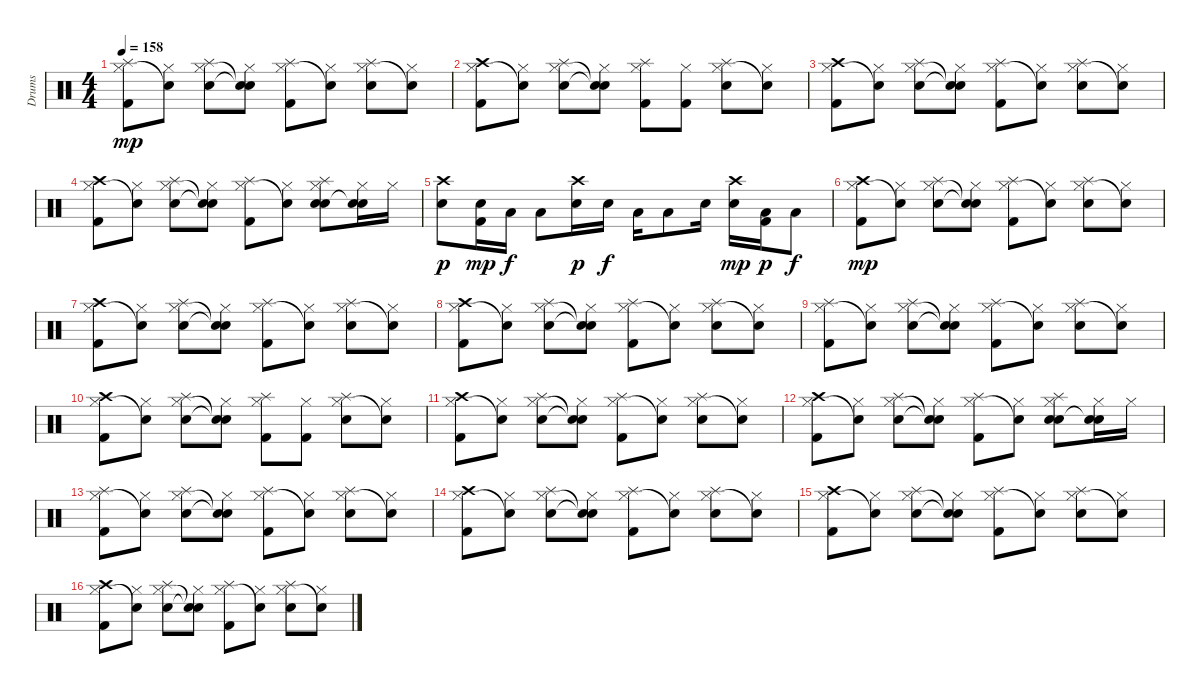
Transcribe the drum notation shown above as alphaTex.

\track ("Drums" "Drums") {instrument percussion}
\staff {score}
\articulation defaults
\ts (4 4)
\tempo 158
\clef neutral
\ks c
("Splash (hit)" "Hi-Hat (closed)" "Kick (hit) 2").8{dy mp} ("Hi-Hat (closed)" "Snare (hit)"{t}).8 ("Splash (hit)" "Hi-Hat (closed)" "Electric Snare (hit)").8 ("Hi-Hat (closed)" "Electric Snare (hit)"{t} "Snare (hit)"{t}).8 ("Splash (hit)" "Hi-Hat (closed)" "Kick (hit) 2").8 ("Hi-Hat (closed)" "Snare (hit)"{t}).8 ("Splash (hit)" "Hi-Hat (closed)" "Electric Snare (hit)").8 ("Hi-Hat (closed)" "Snare (hit)"{t}).8 |
("Crash high (hit)" "Hi-Hat (closed)" "Kick (hit) 2").8 ("Hi-Hat (closed)" "Snare (hit)"{t}).8 ("Splash (hit)" "Hi-Hat (closed)" "Electric Snare (hit)").8 ("Hi-Hat (closed)" "Electric Snare (hit)"{t} "Snare (hit)"{t}).8 ("Splash (hit)" "Hi-Hat (closed)" "Kick (hit) 2").8 ("Hi-Hat (closed)" "Kick (hit) 2").8 ("Splash (hit)" "Hi-Hat (closed)" "Electric Snare (hit)").8 ("Hi-Hat (closed)" "Snare (hit)"{t}).8 |
("Crash high (hit)" "Hi-Hat (closed)" "Kick (hit) 2").8 ("Hi-Hat (closed)" "Snare (hit)"{t}).8 ("Splash (hit)" "Hi-Hat (closed)" "Electric Snare (hit)").8 ("Hi-Hat (closed)" "Electric Snare (hit)"{t} "Snare (hit)"{t}).8 ("Splash (hit)" "Hi-Hat (closed)" "Kick (hit) 2").8 ("Hi-Hat (closed)" "Snare (hit)"{t}).8 ("Splash (hit)" "Hi-Hat (closed)" "Electric Snare (hit)").8 ("Hi-Hat (closed)" "Snare (hit)"{t}).8 |
("Crash high (hit)" "Hi-Hat (closed)" "Kick (hit) 2").8 ("Hi-Hat (closed)" "Snare (hit)"{t}).8 ("Splash (hit)" "Hi-Hat (closed)" "Electric Snare (hit)").8 ("Hi-Hat (closed)" "Electric Snare (hit)"{t} "Snare (hit)"{t}).8 ("Splash (hit)" "Hi-Hat (closed)" "Kick (hit) 2").8 ("Hi-Hat (closed)" "Snare (hit)"{t}).8 ("Splash (hit)" "Hi-Hat (closed)" "Electric Snare (hit)" "Electric Snare (hit)").8 ("Hi-Hat (closed)" "Electric Snare (hit)" "Snare (hit)"{t}).16 "Hi-Hat (closed)".16 |
("Crash high (hit)" "Electric Snare (hit)").8{dy p} ("Electric Snare (hit)" "Kick (hit) 2").16{dy mp} "Low Tom (hit)".16{dy f} "Low Tom (hit)".8 ("Crash high (hit)" "Electric Snare (hit)").16{dy p} "Electric Snare (hit)".16{dy f} "Low Tom (hit)".16 "Low Tom (hit)".8 "Electric Snare (hit)".16 ("Crash high (hit)" "Electric Snare (hit)").16{dy mp} ("Low Tom (hit)" "Kick (hit) 2").16{dy p} "Low Tom (hit)".8{dy f} |
("Crash high (hit)" "Hi-Hat (closed)" "Kick (hit) 2").8{dy mp} ("Hi-Hat (closed)" "Snare (hit)"{t}).8 ("Splash (hit)" "Hi-Hat (closed)" "Electric Snare (hit)").8 ("Hi-Hat (closed)" "Electric Snare (hit)"{t} "Snare (hit)"{t}).8 ("Splash (hit)" "Hi-Hat (closed)" "Kick (hit) 2").8 ("Hi-Hat (closed)" "Snare (hit)"{t}).8 ("Splash (hit)" "Hi-Hat (closed)" "Electric Snare (hit)").8 ("Hi-Hat (closed)" "Snare (hit)"{t}).8 |
("Crash high (hit)" "Hi-Hat (closed)" "Kick (hit) 2").8 ("Hi-Hat (closed)" "Snare (hit)"{t}).8 ("Splash (hit)" "Hi-Hat (closed)" "Electric Snare (hit)").8 ("Hi-Hat (closed)" "Electric Snare (hit)"{t} "Snare (hit)"{t}).8 ("Splash (hit)" "Hi-Hat (closed)" "Kick (hit) 2").8 ("Hi-Hat (closed)" "Snare (hit)"{t}).8 ("Splash (hit)" "Hi-Hat (closed)" "Electric Snare (hit)").8 ("Hi-Hat (closed)" "Snare (hit)"{t}).8 |
("Crash high (hit)" "Hi-Hat (closed)" "Kick (hit) 2").8 ("Hi-Hat (closed)" "Snare (hit)"{t}).8 ("Splash (hit)" "Hi-Hat (closed)" "Electric Snare (hit)").8 ("Hi-Hat (closed)" "Electric Snare (hit)"{t} "Snare (hit)"{t}).8 ("Splash (hit)" "Hi-Hat (closed)" "Kick (hit) 2").8 ("Hi-Hat (closed)" "Snare (hit)"{t}).8 ("Splash (hit)" "Hi-Hat (closed)" "Electric Snare (hit)").8 ("Hi-Hat (closed)" "Snare (hit)"{t}).8 |
("Splash (hit)" "Hi-Hat (closed)" "Kick (hit) 2").8 ("Hi-Hat (closed)" "Snare (hit)"{t}).8 ("Splash (hit)" "Hi-Hat (closed)" "Electric Snare (hit)").8 ("Hi-Hat (closed)" "Electric Snare (hit)"{t} "Snare (hit)"{t}).8 ("Splash (hit)" "Hi-Hat (closed)" "Kick (hit) 2").8 ("Hi-Hat (closed)" "Snare (hit)"{t}).8 ("Splash (hit)" "Hi-Hat (closed)" "Electric Snare (hit)").8 ("Hi-Hat (closed)" "Snare (hit)"{t}).8 |
("Crash high (hit)" "Hi-Hat (closed)" "Kick (hit) 2").8 ("Hi-Hat (closed)" "Snare (hit)"{t}).8 ("Splash (hit)" "Hi-Hat (closed)" "Electric Snare (hit)").8 ("Hi-Hat (closed)" "Electric Snare (hit)"{t} "Snare (hit)"{t}).8 ("Splash (hit)" "Hi-Hat (closed)" "Kick (hit) 2").8 ("Hi-Hat (closed)" "Kick (hit) 2").8 ("Splash (hit)" "Hi-Hat (closed)" "Electric Snare (hit)").8 ("Hi-Hat (closed)" "Snare (hit)"{t}).8 |
("Crash high (hit)" "Hi-Hat (closed)" "Kick (hit) 2").8 ("Hi-Hat (closed)" "Snare (hit)"{t}).8 ("Splash (hit)" "Hi-Hat (closed)" "Electric Snare (hit)").8 ("Hi-Hat (closed)" "Electric Snare (hit)"{t} "Snare (hit)"{t}).8 ("Splash (hit)" "Hi-Hat (closed)" "Kick (hit) 2").8 ("Hi-Hat (closed)" "Snare (hit)"{t}).8 ("Splash (hit)" "Hi-Hat (closed)" "Electric Snare (hit)").8 ("Hi-Hat (closed)" "Snare (hit)"{t}).8 |
("Crash high (hit)" "Hi-Hat (closed)" "Kick (hit) 2").8 ("Hi-Hat (closed)" "Snare (hit)"{t}).8 ("Splash (hit)" "Hi-Hat (closed)" "Electric Snare (hit)").8 ("Hi-Hat (closed)" "Electric Snare (hit)"{t} "Snare (hit)"{t}).8 ("Splash (hit)" "Hi-Hat (closed)" "Kick (hit) 2").8 ("Hi-Hat (closed)" "Snare (hit)"{t}).8 ("Splash (hit)" "Hi-Hat (closed)" "Electric Snare (hit)" "Electric Snare (hit)").8 ("Hi-Hat (closed)" "Electric Snare (hit)" "Snare (hit)"{t}).16 "Hi-Hat (closed)".16 |
("Splash (hit)" "Hi-Hat (closed)" "Kick (hit) 2").8 ("Hi-Hat (closed)" "Snare (hit)"{t}).8 ("Splash (hit)" "Hi-Hat (closed)" "Electric Snare (hit)").8 ("Hi-Hat (closed)" "Electric Snare (hit)"{t} "Snare (hit)"{t}).8 ("Splash (hit)" "Hi-Hat (closed)" "Kick (hit) 2").8 ("Hi-Hat (closed)" "Snare (hit)"{t}).8 ("Splash (hit)" "Hi-Hat (closed)" "Electric Snare (hit)").8 ("Hi-Hat (closed)" "Snare (hit)"{t}).8 |
("Crash high (hit)" "Hi-Hat (closed)" "Kick (hit) 2").8 ("Hi-Hat (closed)" "Snare (hit)"{t}).8 ("Splash (hit)" "Hi-Hat (closed)" "Electric Snare (hit)").8 ("Hi-Hat (closed)" "Electric Snare (hit)"{t} "Snare (hit)"{t}).8 ("Splash (hit)" "Hi-Hat (closed)" "Kick (hit) 2").8 ("Hi-Hat (closed)" "Snare (hit)"{t}).8 ("Splash (hit)" "Hi-Hat (closed)" "Electric Snare (hit)").8 ("Hi-Hat (closed)" "Snare (hit)"{t}).8 |
("Crash high (hit)" "Hi-Hat (closed)" "Kick (hit) 2").8 ("Hi-Hat (closed)" "Snare (hit)"{t}).8 ("Splash (hit)" "Hi-Hat (closed)" "Electric Snare (hit)").8 ("Hi-Hat (closed)" "Electric Snare (hit)"{t} "Snare (hit)"{t}).8 ("Splash (hit)" "Hi-Hat (closed)" "Kick (hit) 2").8 ("Hi-Hat (closed)" "Snare (hit)"{t}).8 ("Splash (hit)" "Hi-Hat (closed)" "Electric Snare (hit)").8 ("Hi-Hat (closed)" "Snare (hit)"{t}).8 |
("Crash high (hit)" "Hi-Hat (closed)" "Kick (hit) 2").8 ("Hi-Hat (closed)" "Snare (hit)"{t}).8 ("Splash (hit)" "Hi-Hat (closed)" "Electric Snare (hit)").8 ("Hi-Hat (closed)" "Electric Snare (hit)"{t} "Snare (hit)"{t}).8 ("Splash (hit)" "Hi-Hat (closed)" "Kick (hit) 2").8 ("Hi-Hat (closed)" "Snare (hit)"{t}).8 ("Splash (hit)" "Hi-Hat (closed)" "Electric Snare (hit)").8 ("Hi-Hat (closed)" "Snare (hit)"{t}).8
